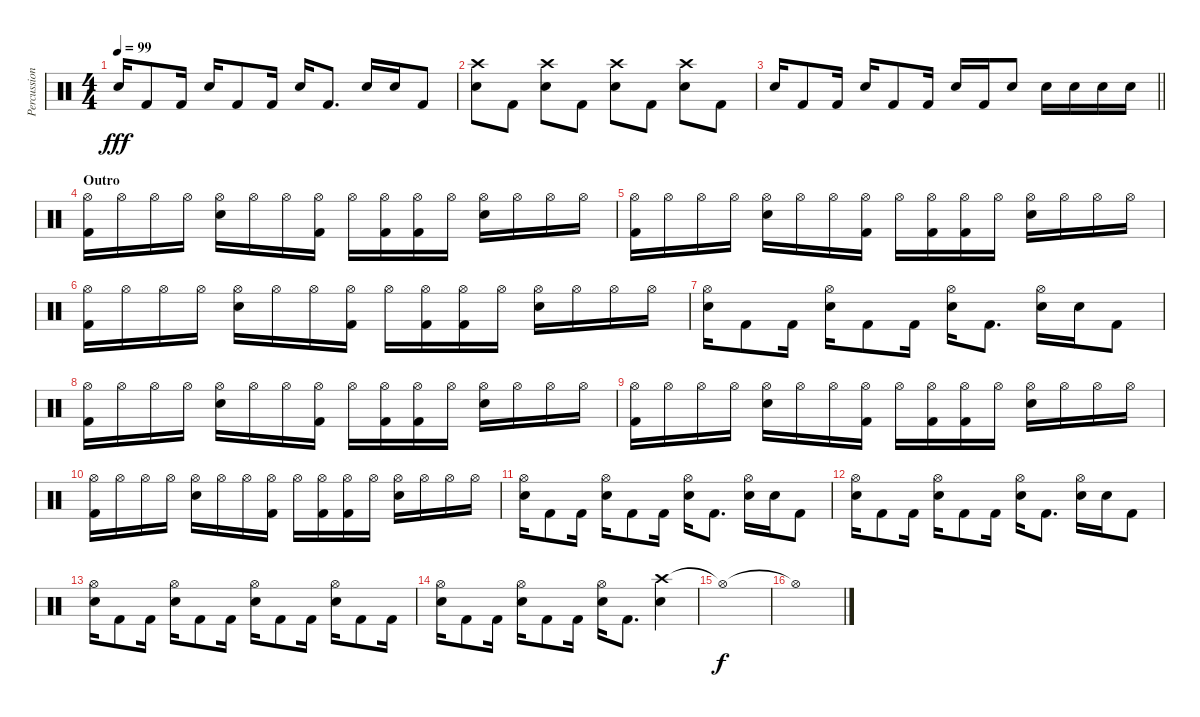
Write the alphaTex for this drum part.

\track ("Percussion" "Percussion") {instrument percussion}
\staff {score}
\articulation defaults
\ts (4 4)
\tempo 99
\clef neutral
\ks c "Snare (hit) 2".16{dy fff} "Kick (hit) 2".8 "Kick (hit) 2".16 "Snare (hit) 2".16 "Kick (hit) 2".8 "Kick (hit) 2".16 "Snare (hit) 2".16 "Kick (hit) 2".8{d} "Snare (hit) 2".16 "Snare (hit) 2".16 "Kick (hit) 2".8
|
("Crash high (hit)" "Snare (hit) 2").8 "Kick (hit) 2".8 ("Crash high (hit)" "Snare (hit) 2").8 "Kick (hit) 2".8 ("Crash high (hit)" "Snare (hit) 2").8 "Kick (hit) 2".8 ("Crash high (hit)" "Snare (hit) 2").8 "Kick (hit) 2".8 |
\barLineRight lightlight "Snare (hit) 2".16 "Kick (hit) 2".8 "Kick (hit) 2".16 "Snare (hit) 2".16 "Kick (hit) 2".8 "Kick (hit) 2".16 "Snare (hit) 2".16 "Kick (hit) 2".16 "Snare (hit) 2".8 "Snare (hit) 2".16 "Snare (hit) 2".16 "Snare (hit) 2".16 "Snare (hit) 2".16
|
\section ("" "Outro")
("Hi-Hat (open)" "Kick (hit) 2").16 "Hi-Hat (open)".16 "Hi-Hat (open)".16 "Hi-Hat (open)".16 ("Hi-Hat (open)" "Snare (hit) 2").16 "Hi-Hat (open)".16 "Hi-Hat (open)".16 ("Hi-Hat (open)" "Kick (hit) 2").16 "Hi-Hat (open)".16 ("Hi-Hat (open)" "Kick (hit) 2").16 ("Hi-Hat (open)" "Kick (hit) 2").16 "Hi-Hat (open)".16 ("Hi-Hat (open)" "Snare (hit) 2").16 "Hi-Hat (open)".16 "Hi-Hat (open)".16 "Hi-Hat (open)".16 |
("Hi-Hat (open)" "Kick (hit) 2").16 "Hi-Hat (open)".16 "Hi-Hat (open)".16 "Hi-Hat (open)".16 ("Hi-Hat (open)" "Snare (hit) 2").16 "Hi-Hat (open)".16 "Hi-Hat (open)".16 ("Hi-Hat (open)" "Kick (hit) 2").16 "Hi-Hat (open)".16 ("Hi-Hat (open)" "Kick (hit) 2").16 ("Hi-Hat (open)" "Kick (hit) 2").16 "Hi-Hat (open)".16 ("Hi-Hat (open)" "Snare (hit) 2").16 "Hi-Hat (open)".16 "Hi-Hat (open)".16 "Hi-Hat (open)".16 |
("Hi-Hat (open)" "Kick (hit) 2").16 "Hi-Hat (open)".16 "Hi-Hat (open)".16 "Hi-Hat (open)".16 ("Hi-Hat (open)" "Snare (hit) 2").16 "Hi-Hat (open)".16 "Hi-Hat (open)".16 ("Hi-Hat (open)" "Kick (hit) 2").16 "Hi-Hat (open)".16 ("Hi-Hat (open)" "Kick (hit) 2").16 ("Hi-Hat (open)" "Kick (hit) 2").16 "Hi-Hat (open)".16 ("Hi-Hat (open)" "Snare (hit) 2").16 "Hi-Hat (open)".16 "Hi-Hat (open)".16 "Hi-Hat (open)".16 |
("Hi-Hat (open)" "Snare (hit) 2").16 "Kick (hit) 2".8 "Kick (hit) 2".16 ("Hi-Hat (open)" "Snare (hit) 2").16 "Kick (hit) 2".8 "Kick (hit) 2".16 ("Hi-Hat (open)" "Snare (hit) 2").16 "Kick (hit) 2".8{d} ("Hi-Hat (open)" "Snare (hit) 2").16 "Snare (hit) 2".16 "Kick (hit) 2".8 |
("Hi-Hat (open)" "Kick (hit) 2").16 "Hi-Hat (open)".16 "Hi-Hat (open)".16 "Hi-Hat (open)".16 ("Hi-Hat (open)" "Snare (hit) 2").16 "Hi-Hat (open)".16 "Hi-Hat (open)".16 ("Hi-Hat (open)" "Kick (hit) 2").16 "Hi-Hat (open)".16 ("Hi-Hat (open)" "Kick (hit) 2").16 ("Hi-Hat (open)" "Kick (hit) 2").16 "Hi-Hat (open)".16 ("Hi-Hat (open)" "Snare (hit) 2").16 "Hi-Hat (open)".16 "Hi-Hat (open)".16 "Hi-Hat (open)".16 |
("Hi-Hat (open)" "Kick (hit) 2").16 "Hi-Hat (open)".16 "Hi-Hat (open)".16 "Hi-Hat (open)".16 ("Hi-Hat (open)" "Snare (hit) 2").16 "Hi-Hat (open)".16 "Hi-Hat (open)".16 ("Hi-Hat (open)" "Kick (hit) 2").16 "Hi-Hat (open)".16 ("Hi-Hat (open)" "Kick (hit) 2").16 ("Hi-Hat (open)" "Kick (hit) 2").16 "Hi-Hat (open)".16 ("Hi-Hat (open)" "Snare (hit) 2").16 "Hi-Hat (open)".16 "Hi-Hat (open)".16 "Hi-Hat (open)".16 |
("Hi-Hat (open)" "Kick (hit) 2").16 "Hi-Hat (open)".16 "Hi-Hat (open)".16 "Hi-Hat (open)".16 ("Hi-Hat (open)" "Snare (hit) 2").16 "Hi-Hat (open)".16 "Hi-Hat (open)".16 ("Hi-Hat (open)" "Kick (hit) 2").16 "Hi-Hat (open)".16 ("Hi-Hat (open)" "Kick (hit) 2").16 ("Hi-Hat (open)" "Kick (hit) 2").16 "Hi-Hat (open)".16 ("Hi-Hat (open)" "Snare (hit) 2").16 "Hi-Hat (open)".16 "Hi-Hat (open)".16 "Hi-Hat (open)".16 |
("Hi-Hat (open)" "Snare (hit) 2").16 "Kick (hit) 2".8 "Kick (hit) 2".16 ("Hi-Hat (open)" "Snare (hit) 2").16 "Kick (hit) 2".8 "Kick (hit) 2".16 ("Hi-Hat (open)" "Snare (hit) 2").16 "Kick (hit) 2".8{d} ("Hi-Hat (open)" "Snare (hit) 2").16 "Snare (hit) 2".16 "Kick (hit) 2".8 |
("Hi-Hat (open)" "Snare (hit) 2").16 "Kick (hit) 2".8 "Kick (hit) 2".16 ("Hi-Hat (open)" "Snare (hit) 2").16 "Kick (hit) 2".8 "Kick (hit) 2".16 ("Hi-Hat (open)" "Snare (hit) 2").16 "Kick (hit) 2".8{d} ("Hi-Hat (open)" "Snare (hit) 2").16 "Snare (hit) 2".16 "Kick (hit) 2".8 |
("Hi-Hat (open)" "Snare (hit) 2").16 "Kick (hit) 2".8 "Kick (hit) 2".16 ("Hi-Hat (open)" "Snare (hit) 2").16 "Kick (hit) 2".8 "Kick (hit) 2".16 ("Hi-Hat (open)" "Snare (hit) 2").16 "Kick (hit) 2".8 "Kick (hit) 2".16 ("Hi-Hat (open)" "Snare (hit) 2").16 "Kick (hit) 2".8 "Kick (hit) 2".16 |
("Hi-Hat (open)" "Snare (hit) 2").16 "Kick (hit) 2".8 "Kick (hit) 2".16 ("Hi-Hat (open)" "Snare (hit) 2").16 "Kick (hit) 2".8 "Kick (hit) 2".16 ("Hi-Hat (open)" "Snare (hit) 2").16 "Kick (hit) 2".8{d} ("Crash high (hit)" "Snare (hit) 2").4 |
"Hi-Hat (open)"{t}.1{dy f} |
"Hi-Hat (open)"{t}.1
